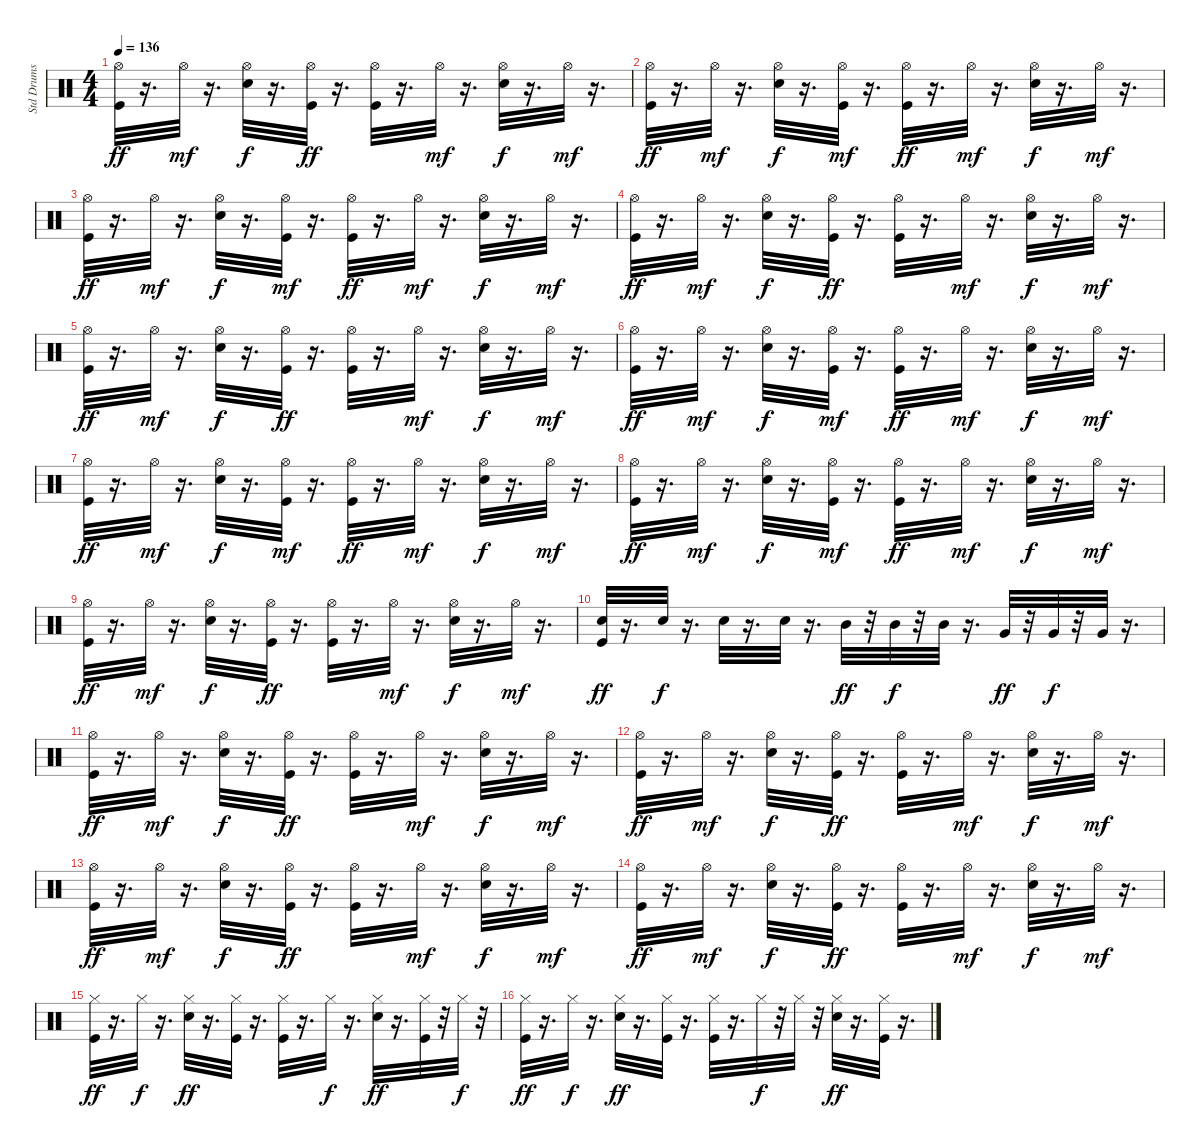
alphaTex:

\track ("Std Drums" "Std Drums") {instrument percussion}
\staff {score}
\articulation defaults
\ts (4 4)
\tempo 136
\clef neutral
\ks c
("Kick (hit)" "Hi-Hat (open)").32{dy ff} r.16{d} "Hi-Hat (open)".32{dy mf} r.16{d} ("Snare (hit) 2" "Hi-Hat (open)").32{dy f} r.16{d} ("Hi-Hat (open)" "Kick (hit)").32{dy ff} r.16{d} ("Hi-Hat (open)" "Kick (hit)").32 r.16{d} "Hi-Hat (open)".32{dy mf} r.16{d} ("Snare (hit) 2" "Hi-Hat (open)").32{dy f} r.16{d} "Hi-Hat (open)".32{dy mf} r.16{d} |
("Hi-Hat (open)" "Kick (hit)").32{dy ff} r.16{d} "Hi-Hat (open)".32{dy mf} r.16{d} ("Snare (hit) 2" "Hi-Hat (open)").32{dy f} r.16{d} ("Kick (hit)" "Hi-Hat (open)").32{dy mf} r.16{d} ("Kick (hit)" "Hi-Hat (open)").32{dy ff} r.16{d} "Hi-Hat (open)".32{dy mf} r.16{d} ("Snare (hit) 2" "Hi-Hat (open)").32{dy f} r.16{d} "Hi-Hat (open)".32{dy mf} r.16{d} |
("Kick (hit)" "Hi-Hat (open)").32{dy ff} r.16{d} "Hi-Hat (open)".32{dy mf} r.16{d} ("Hi-Hat (open)" "Snare (hit) 2").32{dy f} r.16{d} ("Kick (hit)" "Hi-Hat (open)").32{dy mf} r.16{d} ("Kick (hit)" "Hi-Hat (open)").32{dy ff} r.16{d} "Hi-Hat (open)".32{dy mf} r.16{d} ("Hi-Hat (open)" "Snare (hit) 2").32{dy f} r.16{d} "Hi-Hat (open)".32{dy mf} r.16{d} |
("Kick (hit)" "Hi-Hat (open)").32{dy ff} r.16{d} "Hi-Hat (open)".32{dy mf} r.16{d} ("Hi-Hat (open)" "Snare (hit) 2").32{dy f} r.16{d} ("Hi-Hat (open)" "Kick (hit)").32{dy ff} r.16{d} ("Hi-Hat (open)" "Kick (hit)").32 r.16{d} "Hi-Hat (open)".32{dy mf} r.16{d} ("Snare (hit) 2" "Hi-Hat (open)").32{dy f} r.16{d} "Hi-Hat (open)".32{dy mf} r.16{d} |
("Hi-Hat (open)" "Kick (hit)").32{dy ff} r.16{d} "Hi-Hat (open)".32{dy mf} r.16{d} ("Snare (hit) 2" "Hi-Hat (open)").32{dy f} r.16{d} ("Hi-Hat (open)" "Kick (hit)").32{dy ff} r.16{d} ("Hi-Hat (open)" "Kick (hit)").32 r.16{d} "Hi-Hat (open)".32{dy mf} r.16{d} ("Snare (hit) 2" "Hi-Hat (open)").32{dy f} r.16{d} "Hi-Hat (open)".32{dy mf} r.16{d} |
("Kick (hit)" "Hi-Hat (open)").32{dy ff} r.16{d} "Hi-Hat (open)".32{dy mf} r.16{d} ("Snare (hit) 2" "Hi-Hat (open)").32{dy f} r.16{d} ("Kick (hit)" "Hi-Hat (open)").32{dy mf} r.16{d} ("Hi-Hat (open)" "Kick (hit)").32{dy ff} r.16{d} "Hi-Hat (open)".32{dy mf} r.16{d} ("Snare (hit) 2" "Hi-Hat (open)").32{dy f} r.16{d} "Hi-Hat (open)".32{dy mf} r.16{d} |
("Kick (hit)" "Hi-Hat (open)").32{dy ff} r.16{d} "Hi-Hat (open)".32{dy mf} r.16{d} ("Snare (hit) 2" "Hi-Hat (open)").32{dy f} r.16{d} ("Kick (hit)" "Hi-Hat (open)").32{dy mf} r.16{d} ("Kick (hit)" "Hi-Hat (open)").32{dy ff} r.16{d} "Hi-Hat (open)".32{dy mf} r.16{d} ("Snare (hit) 2" "Hi-Hat (open)").32{dy f} r.16{d} "Hi-Hat (open)".32{dy mf} r.16{d} |
("Hi-Hat (open)" "Kick (hit)").32{dy ff} r.16{d} "Hi-Hat (open)".32{dy mf} r.16{d} ("Hi-Hat (open)" "Snare (hit) 2").32{dy f} r.16{d} ("Kick (hit)" "Hi-Hat (open)").32{dy mf} r.16{d} ("Hi-Hat (open)" "Kick (hit)").32{dy ff} r.16{d} "Hi-Hat (open)".32{dy mf} r.16{d} ("Snare (hit) 2" "Hi-Hat (open)").32{dy f} r.16{d} "Hi-Hat (open)".32{dy mf} r.16{d} |
("Kick (hit)" "Hi-Hat (open)").32{dy ff} r.16{d} "Hi-Hat (open)".32{dy mf} r.16{d} ("Snare (hit) 2" "Hi-Hat (open)").32{dy f} r.16{d} ("Hi-Hat (open)" "Kick (hit)").32{dy ff} r.16{d} ("Hi-Hat (open)" "Kick (hit)").32 r.16{d} "Hi-Hat (open)".32{dy mf} r.16{d} ("Hi-Hat (open)" "Snare (hit) 2").32{dy f} r.16{d} "Hi-Hat (open)".32{dy mf} r.16{d} |
("Kick (hit)" "Snare (hit) 2").32{dy ff} r.16{d} "Snare (hit) 2".32{dy f} r.16{d} "Snare (hit) 2".32 r.16{d} "Snare (hit) 2".32 r.16{d} "Mid Tom (hit)".32{dy ff} r.32 "Mid Tom (hit)".32{dy f} r.32 "Mid Tom (hit)".32 r.16{d} "Very Low Tom (hit)".32{dy ff} r.32 "Very Low Tom (hit)".32{dy f} r.32 "Very Low Tom (hit)".32 r.16{d} |
("Hi-Hat (open)" "Kick (hit)").32{dy ff} r.16{d} "Hi-Hat (open)".32{dy mf} r.16{d} ("Snare (hit) 2" "Hi-Hat (open)").32{dy f} r.16{d} ("Hi-Hat (open)" "Kick (hit)").32{dy ff} r.16{d} ("Kick (hit)" "Hi-Hat (open)").32 r.16{d} "Hi-Hat (open)".32{dy mf} r.16{d} ("Hi-Hat (open)" "Snare (hit) 2").32{dy f} r.16{d} "Hi-Hat (open)".32{dy mf} r.16{d} |
("Hi-Hat (open)" "Kick (hit)").32{dy ff} r.16{d} "Hi-Hat (open)".32{dy mf} r.16{d} ("Hi-Hat (open)" "Snare (hit) 2").32{dy f} r.16{d} ("Hi-Hat (open)" "Kick (hit)").32{dy ff} r.16{d} ("Hi-Hat (open)" "Kick (hit)").32 r.16{d} "Hi-Hat (open)".32{dy mf} r.16{d} ("Hi-Hat (open)" "Snare (hit) 2").32{dy f} r.16{d} "Hi-Hat (open)".32{dy mf} r.16{d} |
("Kick (hit)" "Hi-Hat (open)").32{dy ff} r.16{d} "Hi-Hat (open)".32{dy mf} r.16{d} ("Snare (hit) 2" "Hi-Hat (open)").32{dy f} r.16{d} ("Hi-Hat (open)" "Kick (hit)").32{dy ff} r.16{d} ("Kick (hit)" "Hi-Hat (open)").32 r.16{d} "Hi-Hat (open)".32{dy mf} r.16{d} ("Hi-Hat (open)" "Snare (hit) 2").32{dy f} r.16{d} "Hi-Hat (open)".32{dy mf} r.16{d} |
("Kick (hit)" "Hi-Hat (open)").32{dy ff} r.16{d} "Hi-Hat (open)".32{dy mf} r.16{d} ("Hi-Hat (open)" "Snare (hit) 2").32{dy f} r.16{d} ("Hi-Hat (open)" "Kick (hit)").32{dy ff} r.16{d} ("Hi-Hat (open)" "Kick (hit)").32 r.16{d} "Hi-Hat (open)".32{dy mf} r.16{d} ("Snare (hit) 2" "Hi-Hat (open)").32{dy f} r.16{d} "Hi-Hat (open)".32{dy mf} r.16{d} |
("Kick (hit)" "Hi-Hat (closed)").32{dy ff} r.16{d} "Hi-Hat (closed)".32{dy f} r.16{d} ("Snare (hit) 2" "Hi-Hat (closed)").32{dy ff} r.16{d} ("Kick (hit)" "Hi-Hat (closed)").32 r.16{d} ("Kick (hit)" "Hi-Hat (closed)").32 r.16{d} "Hi-Hat (closed)".32{dy f} r.16{d} ("Snare (hit) 2" "Hi-Hat (closed)").32{dy ff} r.16{d} ("Hi-Hat (closed)" "Kick (hit)").32 r.32 "Hi-Hat (closed)".32{dy f} r.32 |
("Hi-Hat (closed)" "Kick (hit)").32{dy ff} r.16{d} "Hi-Hat (closed)".32{dy f} r.16{d} ("Hi-Hat (closed)" "Snare (hit) 2").32{dy ff} r.16{d} ("Hi-Hat (closed)" "Kick (hit)").32 r.16{d} ("Hi-Hat (closed)" "Kick (hit)").32 r.16{d} "Hi-Hat (closed)".32{dy f} r.32 "Hi-Hat (closed)".32 r.32 ("Hi-Hat (closed)" "Snare (hit) 2").32{dy ff} r.16{d} ("Kick (hit)" "Hi-Hat (closed)").32 r.16{d}
